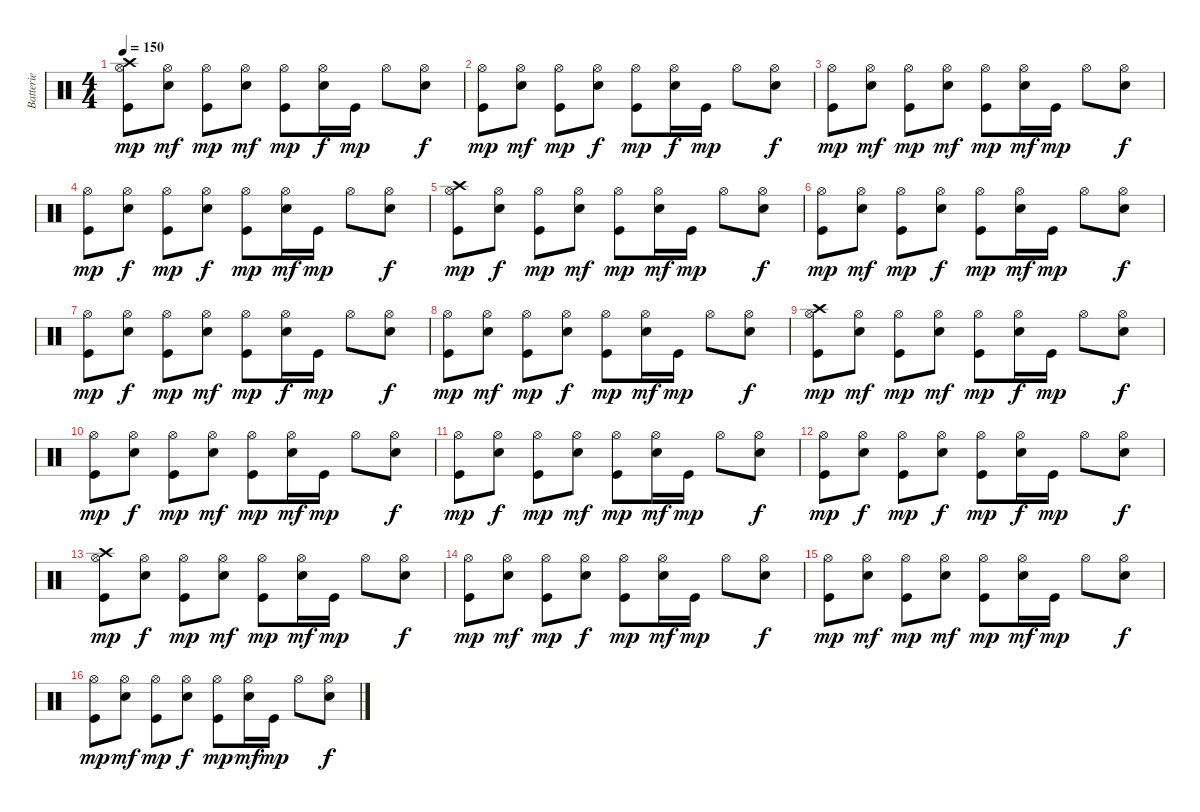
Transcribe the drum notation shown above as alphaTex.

\track ("Batterie" "Batterie") {instrument percussion}
\staff {score}
\articulation defaults
\ts (4 4)
\tempo 150
\clef neutral
\ks c
("Hi-Hat (open)" "Crash high (hit)" "Kick (hit)").8{dy mp} ("Hi-Hat (open)" "Snare (hit) 2").8{dy mf} ("Hi-Hat (open)" "Kick (hit)").8{dy mp} ("Hi-Hat (open)" "Snare (hit) 2").8{dy mf} ("Hi-Hat (open)" "Kick (hit)").8{dy mp} ("Hi-Hat (open)" "Snare (hit) 2").16{dy f} "Kick (hit)".16{dy mp} "Hi-Hat (open)".8 ("Hi-Hat (open)" "Snare (hit) 2").8{dy f} |
("Hi-Hat (open)" "Kick (hit)").8{dy mp} ("Hi-Hat (open)" "Snare (hit) 2").8{dy mf} ("Hi-Hat (open)" "Kick (hit)").8{dy mp} ("Hi-Hat (open)" "Snare (hit) 2").8{dy f} ("Hi-Hat (open)" "Kick (hit)").8{dy mp} ("Hi-Hat (open)" "Snare (hit) 2").16{dy f} "Kick (hit)".16{dy mp} "Hi-Hat (open)".8 ("Hi-Hat (open)" "Snare (hit) 2").8{dy f} |
("Hi-Hat (open)" "Kick (hit)").8{dy mp} ("Hi-Hat (open)" "Snare (hit) 2").8{dy mf} ("Hi-Hat (open)" "Kick (hit)").8{dy mp} ("Hi-Hat (open)" "Snare (hit) 2").8{dy mf} ("Hi-Hat (open)" "Kick (hit)").8{dy mp} ("Hi-Hat (open)" "Snare (hit) 2").16{dy mf} "Kick (hit)".16{dy mp} "Hi-Hat (open)".8 ("Hi-Hat (open)" "Snare (hit) 2").8{dy f} |
("Hi-Hat (open)" "Kick (hit)").8{dy mp} ("Hi-Hat (open)" "Snare (hit) 2").8{dy f} ("Hi-Hat (open)" "Kick (hit)").8{dy mp} ("Hi-Hat (open)" "Snare (hit) 2").8{dy f} ("Hi-Hat (open)" "Kick (hit)").8{dy mp} ("Hi-Hat (open)" "Snare (hit) 2").16{dy mf} "Kick (hit)".16{dy mp} "Hi-Hat (open)".8 ("Hi-Hat (open)" "Snare (hit) 2").8{dy f} |
("Hi-Hat (open)" "Crash high (hit)" "Kick (hit)").8{dy mp} ("Hi-Hat (open)" "Snare (hit) 2").8{dy f} ("Hi-Hat (open)" "Kick (hit)").8{dy mp} ("Hi-Hat (open)" "Snare (hit) 2").8{dy mf} ("Hi-Hat (open)" "Kick (hit)").8{dy mp} ("Hi-Hat (open)" "Snare (hit) 2").16{dy mf} "Kick (hit)".16{dy mp} "Hi-Hat (open)".8 ("Hi-Hat (open)" "Snare (hit) 2").8{dy f} |
("Hi-Hat (open)" "Kick (hit)").8{dy mp} ("Hi-Hat (open)" "Snare (hit) 2").8{dy mf} ("Hi-Hat (open)" "Kick (hit)").8{dy mp} ("Hi-Hat (open)" "Snare (hit) 2").8{dy f} ("Hi-Hat (open)" "Kick (hit)").8{dy mp} ("Hi-Hat (open)" "Snare (hit) 2").16{dy mf} "Kick (hit)".16{dy mp} "Hi-Hat (open)".8 ("Hi-Hat (open)" "Snare (hit) 2").8{dy f} |
("Hi-Hat (open)" "Kick (hit)").8{dy mp} ("Hi-Hat (open)" "Snare (hit) 2").8{dy f} ("Hi-Hat (open)" "Kick (hit)").8{dy mp} ("Hi-Hat (open)" "Snare (hit) 2").8{dy mf} ("Hi-Hat (open)" "Kick (hit)").8{dy mp} ("Hi-Hat (open)" "Snare (hit) 2").16{dy f} "Kick (hit)".16{dy mp} "Hi-Hat (open)".8 ("Hi-Hat (open)" "Snare (hit) 2").8{dy f} |
("Hi-Hat (open)" "Kick (hit)").8{dy mp} ("Hi-Hat (open)" "Snare (hit) 2").8{dy mf} ("Hi-Hat (open)" "Kick (hit)").8{dy mp} ("Hi-Hat (open)" "Snare (hit) 2").8{dy f} ("Hi-Hat (open)" "Kick (hit)").8{dy mp} ("Hi-Hat (open)" "Snare (hit) 2").16{dy mf} "Kick (hit)".16{dy mp} "Hi-Hat (open)".8 ("Hi-Hat (open)" "Snare (hit) 2").8{dy f} |
("Hi-Hat (open)" "Crash high (hit)" "Kick (hit)").8{dy mp} ("Hi-Hat (open)" "Snare (hit) 2").8{dy mf} ("Hi-Hat (open)" "Kick (hit)").8{dy mp} ("Hi-Hat (open)" "Snare (hit) 2").8{dy mf} ("Hi-Hat (open)" "Kick (hit)").8{dy mp} ("Hi-Hat (open)" "Snare (hit) 2").16{dy f} "Kick (hit)".16{dy mp} "Hi-Hat (open)".8 ("Hi-Hat (open)" "Snare (hit) 2").8{dy f} |
("Hi-Hat (open)" "Kick (hit)").8{dy mp} ("Hi-Hat (open)" "Snare (hit) 2").8{dy f} ("Hi-Hat (open)" "Kick (hit)").8{dy mp} ("Hi-Hat (open)" "Snare (hit) 2").8{dy mf} ("Hi-Hat (open)" "Kick (hit)").8{dy mp} ("Hi-Hat (open)" "Snare (hit) 2").16{dy mf} "Kick (hit)".16{dy mp} "Hi-Hat (open)".8 ("Hi-Hat (open)" "Snare (hit) 2").8{dy f} |
("Hi-Hat (open)" "Kick (hit)").8{dy mp} ("Hi-Hat (open)" "Snare (hit) 2").8{dy f} ("Hi-Hat (open)" "Kick (hit)").8{dy mp} ("Hi-Hat (open)" "Snare (hit) 2").8{dy mf} ("Hi-Hat (open)" "Kick (hit)").8{dy mp} ("Hi-Hat (open)" "Snare (hit) 2").16{dy mf} "Kick (hit)".16{dy mp} "Hi-Hat (open)".8 ("Hi-Hat (open)" "Snare (hit) 2").8{dy f} |
("Hi-Hat (open)" "Kick (hit)").8{dy mp} ("Hi-Hat (open)" "Snare (hit) 2").8{dy f} ("Hi-Hat (open)" "Kick (hit)").8{dy mp} ("Hi-Hat (open)" "Snare (hit) 2").8{dy f} ("Hi-Hat (open)" "Kick (hit)").8{dy mp} ("Hi-Hat (open)" "Snare (hit) 2").16{dy f} "Kick (hit)".16{dy mp} "Hi-Hat (open)".8 ("Hi-Hat (open)" "Snare (hit) 2").8{dy f} |
("Hi-Hat (open)" "Crash high (hit)" "Kick (hit)").8{dy mp} ("Hi-Hat (open)" "Snare (hit) 2").8{dy f} ("Hi-Hat (open)" "Kick (hit)").8{dy mp} ("Hi-Hat (open)" "Snare (hit) 2").8{dy mf} ("Hi-Hat (open)" "Kick (hit)").8{dy mp} ("Hi-Hat (open)" "Snare (hit) 2").16{dy mf} "Kick (hit)".16{dy mp} "Hi-Hat (open)".8 ("Hi-Hat (open)" "Snare (hit) 2").8{dy f} |
("Hi-Hat (open)" "Kick (hit)").8{dy mp} ("Hi-Hat (open)" "Snare (hit) 2").8{dy mf} ("Hi-Hat (open)" "Kick (hit)").8{dy mp} ("Hi-Hat (open)" "Snare (hit) 2").8{dy f} ("Hi-Hat (open)" "Kick (hit)").8{dy mp} ("Hi-Hat (open)" "Snare (hit) 2").16{dy mf} "Kick (hit)".16{dy mp} "Hi-Hat (open)".8 ("Hi-Hat (open)" "Snare (hit) 2").8{dy f} |
("Hi-Hat (open)" "Kick (hit)").8{dy mp} ("Hi-Hat (open)" "Snare (hit) 2").8{dy mf} ("Hi-Hat (open)" "Kick (hit)").8{dy mp} ("Hi-Hat (open)" "Snare (hit) 2").8{dy mf} ("Hi-Hat (open)" "Kick (hit)").8{dy mp} ("Hi-Hat (open)" "Snare (hit) 2").16{dy mf} "Kick (hit)".16{dy mp} "Hi-Hat (open)".8 ("Hi-Hat (open)" "Snare (hit) 2").8{dy f} |
("Hi-Hat (open)" "Kick (hit)").8{dy mp} ("Hi-Hat (open)" "Snare (hit) 2").8{dy mf} ("Hi-Hat (open)" "Kick (hit)").8{dy mp} ("Hi-Hat (open)" "Snare (hit) 2").8{dy f} ("Hi-Hat (open)" "Kick (hit)").8{dy mp} ("Hi-Hat (open)" "Snare (hit) 2").16{dy mf} "Kick (hit)".16{dy mp} "Hi-Hat (open)".8 ("Hi-Hat (open)" "Snare (hit) 2").8{dy f}
